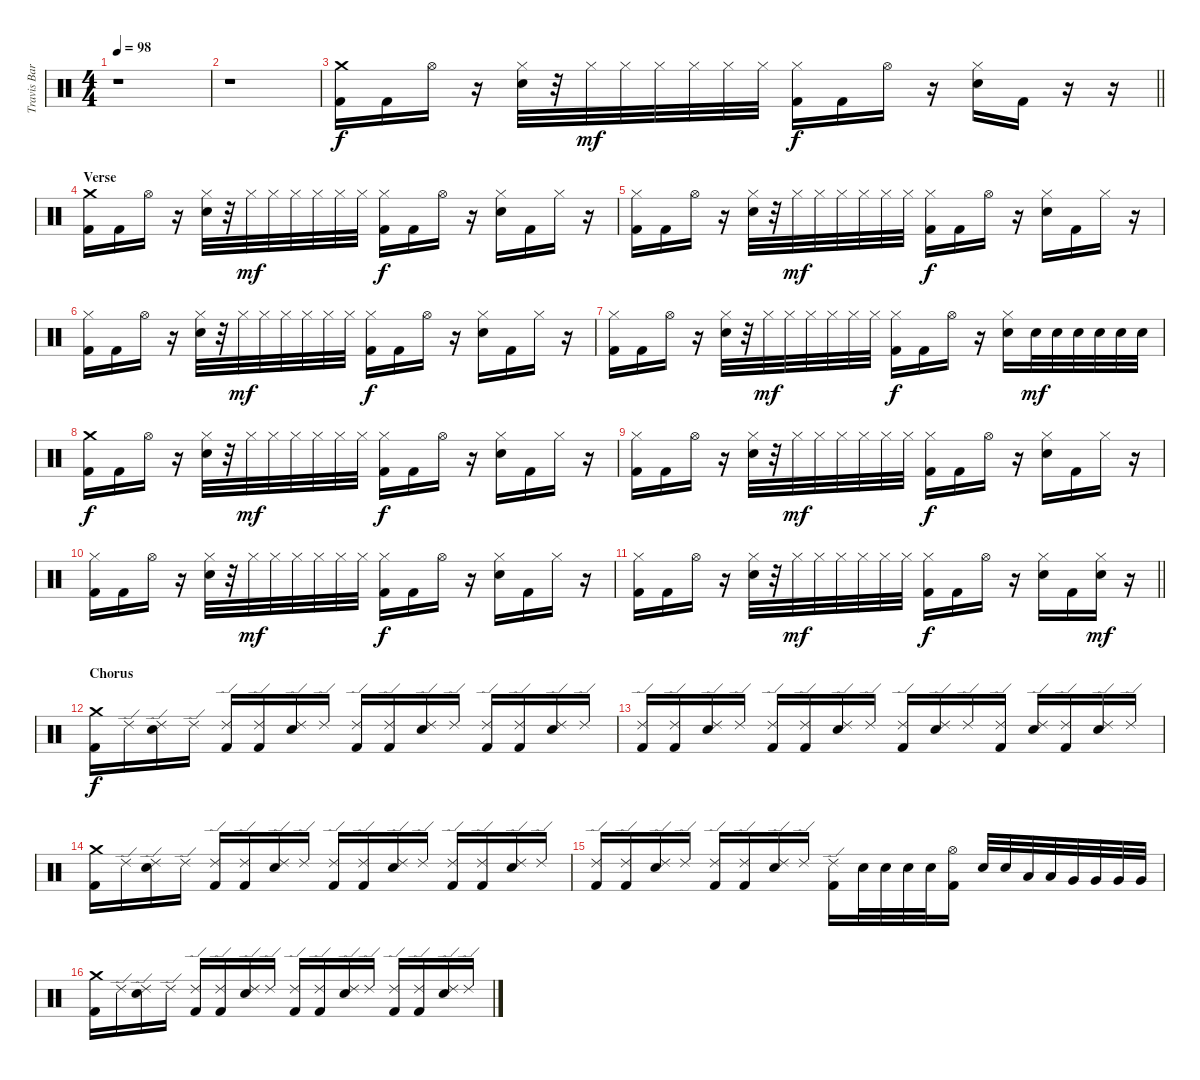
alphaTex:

\track ("Travis Barker" "Travis Bar") {instrument percussion}
\staff {score}
\articulation defaults
\ts (4 4)
\tempo 98
\clef neutral
\ks c
r.1{dy mf} |
r.1 |
\barLineRight lightlight
("Crash medium (hit)" "Kick (hit) 2").16{dy f} "Kick (hit) 2".16 "Hi-Hat (open)".16 r.16 ("Hi-Hat (closed)" "Electric Snare (hit)").32 r.32 "Hi-Hat (closed)".32{dy mf} "Hi-Hat (closed)".32 "Hi-Hat (closed)".32 "Hi-Hat (closed)".32 "Hi-Hat (closed)".32 "Hi-Hat (closed)".32 ("Hi-Hat (closed)" "Kick (hit) 2").16{dy f} "Kick (hit) 2".16 "Hi-Hat (open)".16 r.16 ("Hi-Hat (closed)" "Electric Snare (hit)").16 "Kick (hit) 2".16 r.16 r.16 |
\section ("" "Verse")
("Crash medium (hit)" "Kick (hit) 2").16 "Kick (hit) 2".16 "Hi-Hat (open)".16 r.16 ("Hi-Hat (closed)" "Electric Snare (hit)").32 r.32 "Hi-Hat (closed)".32{dy mf} "Hi-Hat (closed)".32 "Hi-Hat (closed)".32 "Hi-Hat (closed)".32 "Hi-Hat (closed)".32 "Hi-Hat (closed)".32 ("Hi-Hat (closed)" "Kick (hit) 2").16{dy f} "Kick (hit) 2".16 "Hi-Hat (open)".16 r.16 ("Hi-Hat (closed)" "Electric Snare (hit)").16 "Kick (hit) 2".16 "Hi-Hat (closed)".16 r.16 |
("Hi-Hat (closed)" "Kick (hit) 2").16 "Kick (hit) 2".16 "Hi-Hat (open)".16 r.16 ("Hi-Hat (closed)" "Electric Snare (hit)").32 r.32 "Hi-Hat (closed)".32{dy mf} "Hi-Hat (closed)".32 "Hi-Hat (closed)".32 "Hi-Hat (closed)".32 "Hi-Hat (closed)".32 "Hi-Hat (closed)".32 ("Hi-Hat (closed)" "Kick (hit) 2").16{dy f} "Kick (hit) 2".16 "Hi-Hat (open)".16 r.16 ("Hi-Hat (closed)" "Electric Snare (hit)").16 "Kick (hit) 2".16 "Hi-Hat (closed)".16 r.16 |
("Hi-Hat (closed)" "Kick (hit) 2").16 "Kick (hit) 2".16 "Hi-Hat (open)".16 r.16 ("Hi-Hat (closed)" "Electric Snare (hit)").32 r.32 "Hi-Hat (closed)".32{dy mf} "Hi-Hat (closed)".32 "Hi-Hat (closed)".32 "Hi-Hat (closed)".32 "Hi-Hat (closed)".32 "Hi-Hat (closed)".32 ("Hi-Hat (closed)" "Kick (hit) 2").16{dy f} "Kick (hit) 2".16 "Hi-Hat (open)".16 r.16 ("Hi-Hat (closed)" "Electric Snare (hit)").16 "Kick (hit) 2".16 "Hi-Hat (closed)".16 r.16 |
("Hi-Hat (closed)" "Kick (hit) 2").16 "Kick (hit) 2".16 "Hi-Hat (open)".16 r.16 ("Hi-Hat (closed)" "Electric Snare (hit)").32 r.32 "Hi-Hat (closed)".32{dy mf} "Hi-Hat (closed)".32 "Hi-Hat (closed)".32 "Hi-Hat (closed)".32 "Hi-Hat (closed)".32 "Hi-Hat (closed)".32 ("Hi-Hat (closed)" "Kick (hit) 2").16{dy f} "Kick (hit) 2".16 "Hi-Hat (open)".16 r.16 ("Hi-Hat (closed)" "Electric Snare (hit)").16 "Electric Snare (hit)".32{dy mf} "Electric Snare (hit)".32 "Electric Snare (hit)".32 "Electric Snare (hit)".32 "Electric Snare (hit)".32 "Electric Snare (hit)".32 |
("Crash medium (hit)" "Kick (hit) 2").16{dy f} "Kick (hit) 2".16 "Hi-Hat (open)".16 r.16 ("Hi-Hat (closed)" "Electric Snare (hit)").32 r.32 "Hi-Hat (closed)".32{dy mf} "Hi-Hat (closed)".32 "Hi-Hat (closed)".32 "Hi-Hat (closed)".32 "Hi-Hat (closed)".32 "Hi-Hat (closed)".32 ("Hi-Hat (closed)" "Kick (hit) 2").16{dy f} "Kick (hit) 2".16 "Hi-Hat (open)".16 r.16 ("Hi-Hat (closed)" "Electric Snare (hit)").16 "Kick (hit) 2".16 "Hi-Hat (closed)".16 r.16 |
("Hi-Hat (closed)" "Kick (hit) 2").16 "Kick (hit) 2".16 "Hi-Hat (open)".16 r.16 ("Hi-Hat (closed)" "Electric Snare (hit)").32 r.32 "Hi-Hat (closed)".32{dy mf} "Hi-Hat (closed)".32 "Hi-Hat (closed)".32 "Hi-Hat (closed)".32 "Hi-Hat (closed)".32 "Hi-Hat (closed)".32 ("Hi-Hat (closed)" "Kick (hit) 2").16{dy f} "Kick (hit) 2".16 "Hi-Hat (open)".16 r.16 ("Hi-Hat (closed)" "Electric Snare (hit)").16 "Kick (hit) 2".16 "Hi-Hat (closed)".16 r.16 |
("Hi-Hat (closed)" "Kick (hit) 2").16 "Kick (hit) 2".16 "Hi-Hat (open)".16 r.16 ("Hi-Hat (closed)" "Electric Snare (hit)").32 r.32 "Hi-Hat (closed)".32{dy mf} "Hi-Hat (closed)".32 "Hi-Hat (closed)".32 "Hi-Hat (closed)".32 "Hi-Hat (closed)".32 "Hi-Hat (closed)".32 ("Hi-Hat (closed)" "Kick (hit) 2").16{dy f} "Kick (hit) 2".16 "Hi-Hat (open)".16 r.16 ("Hi-Hat (closed)" "Electric Snare (hit)").16 "Kick (hit) 2".16 "Hi-Hat (closed)".16 r.16 |
\barLineRight lightlight
("Hi-Hat (closed)" "Kick (hit) 2").16 "Kick (hit) 2".16 "Hi-Hat (open)".16 r.16 ("Hi-Hat (closed)" "Electric Snare (hit)").32 r.32 "Hi-Hat (closed)".32{dy mf} "Hi-Hat (closed)".32 "Hi-Hat (closed)".32 "Hi-Hat (closed)".32 "Hi-Hat (closed)".32 "Hi-Hat (closed)".32 ("Hi-Hat (closed)" "Kick (hit) 2").16{dy f} "Kick (hit) 2".16 "Hi-Hat (open)".16 r.16 ("Hi-Hat (closed)" "Electric Snare (hit)").16 "Kick (hit) 2".16 ("Hi-Hat (closed)" "Electric Snare (hit)").16{dy mf} r.16 |
\section ("" "Chorus")
("Crash medium (hit)" "Kick (hit) 2").16{dy f} "Ride (edge) 2".16 ("Ride (edge) 2" "Electric Snare (hit)").16 "Ride (edge) 2".16 ("Ride (edge) 2" "Kick (hit) 2").16 ("Ride (edge) 2" "Kick (hit) 2").16 ("Ride (edge) 2" "Electric Snare (hit)").16 "Ride (edge) 2".16 ("Ride (edge) 2" "Kick (hit) 2").16 ("Ride (edge) 2" "Kick (hit) 2").16 ("Ride (edge) 2" "Electric Snare (hit)").16 "Ride (edge) 2".16 ("Ride (edge) 2" "Kick (hit) 2").16 ("Ride (edge) 2" "Kick (hit) 2").16 ("Ride (edge) 2" "Electric Snare (hit)").16 "Ride (edge) 2".16 |
("Ride (edge) 2" "Kick (hit) 2").16 ("Ride (edge) 2" "Kick (hit) 2").16 ("Ride (edge) 2" "Electric Snare (hit)").16 "Ride (edge) 2".16 ("Ride (edge) 2" "Kick (hit) 2").16 ("Ride (edge) 2" "Kick (hit) 2").16 ("Ride (edge) 2" "Electric Snare (hit)").16 "Ride (edge) 2".16 ("Ride (edge) 2" "Kick (hit) 2").16 ("Ride (edge) 2" "Electric Snare (hit)").16 "Ride (edge) 2".16 ("Ride (edge) 2" "Kick (hit) 2").16 ("Ride (edge) 2" "Electric Snare (hit)").16 ("Ride (edge) 2" "Kick (hit) 2").16 ("Ride (edge) 2" "Electric Snare (hit)").16 "Ride (edge) 2".16 |
("Crash medium (hit)" "Kick (hit) 2").16 "Ride (edge) 2".16 ("Ride (edge) 2" "Electric Snare (hit)").16 "Ride (edge) 2".16 ("Ride (edge) 2" "Kick (hit) 2").16 ("Ride (edge) 2" "Kick (hit) 2").16 ("Ride (edge) 2" "Electric Snare (hit)").16 "Ride (edge) 2".16 ("Ride (edge) 2" "Kick (hit) 2").16 ("Ride (edge) 2" "Kick (hit) 2").16 ("Ride (edge) 2" "Electric Snare (hit)").16 "Ride (edge) 2".16 ("Ride (edge) 2" "Kick (hit) 2").16 ("Ride (edge) 2" "Kick (hit) 2").16 ("Ride (edge) 2" "Electric Snare (hit)").16 "Ride (edge) 2".16 |
("Ride (edge) 2" "Kick (hit) 2").16 ("Ride (edge) 2" "Kick (hit) 2").16 ("Ride (edge) 2" "Electric Snare (hit)").16 "Ride (edge) 2".16 ("Ride (edge) 2" "Kick (hit) 2").16 ("Ride (edge) 2" "Kick (hit) 2").16 ("Ride (edge) 2" "Electric Snare (hit)").16 "Ride (edge) 2".16 ("Ride (edge) 2" "Kick (hit) 2").16 "Electric Snare (hit)".32 "Electric Snare (hit)".32 "Electric Snare (hit)".32 "Electric Snare (hit)".32 ("Hi-Hat (open)" "Kick (hit) 2").16 "Electric Snare (hit)".32 "Electric Snare (hit)".32 "Low Tom (hit)".32 "Low Tom (hit)".32 "Very Low Tom (hit)".32 "Very Low Tom (hit)".32 "Very Low Tom (hit)".32 "Very Low Tom (hit)".32 |
("Crash medium (hit)" "Kick (hit) 2").16 "Ride (edge) 2".16 ("Ride (edge) 2" "Electric Snare (hit)").16 "Ride (edge) 2".16 ("Ride (edge) 2" "Kick (hit) 2").16 ("Ride (edge) 2" "Kick (hit) 2").16 ("Ride (edge) 2" "Electric Snare (hit)").16 "Ride (edge) 2".16 ("Ride (edge) 2" "Kick (hit) 2").16 ("Ride (edge) 2" "Kick (hit) 2").16 ("Ride (edge) 2" "Electric Snare (hit)").16 "Ride (edge) 2".16 ("Ride (edge) 2" "Kick (hit) 2").16 ("Ride (edge) 2" "Kick (hit) 2").16 ("Ride (edge) 2" "Electric Snare (hit)").16 "Ride (edge) 2".16
